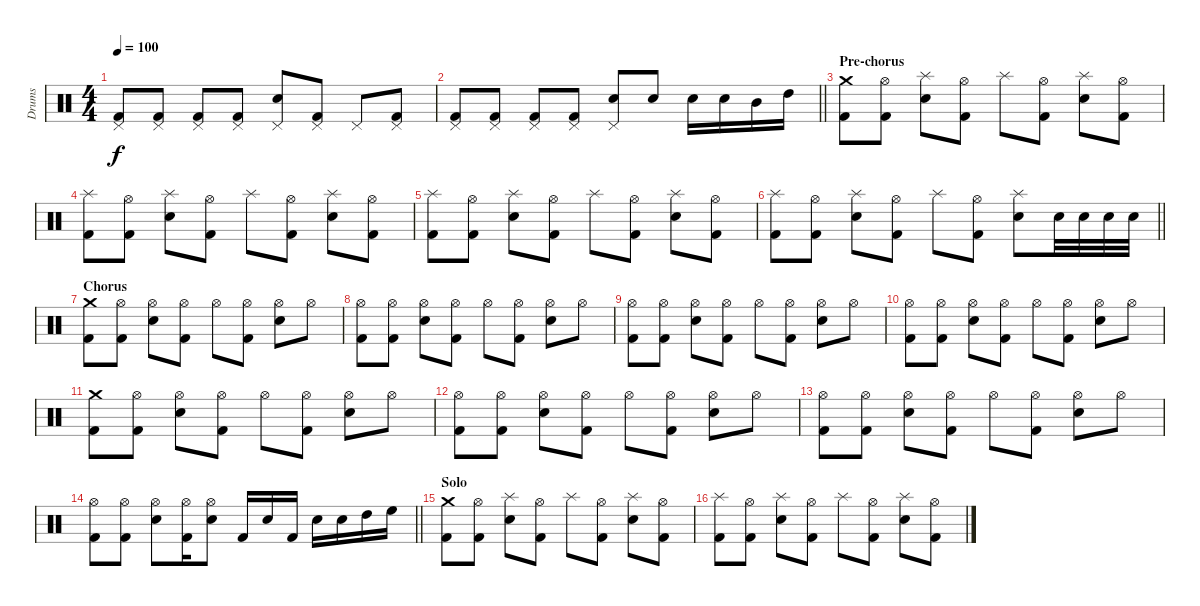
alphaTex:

\track ("Drums" "Drums") {instrument percussion}
\staff {score}
\articulation defaults
\ts (4 4)
\tempo 100
\clef neutral
\ks c
("Pedal Hi-Hat (hit)" "Kick (hit) 2").8{dy f} ("Pedal Hi-Hat (hit)" "Kick (hit) 2").8 ("Pedal Hi-Hat (hit)" "Kick (hit) 2").8 ("Pedal Hi-Hat (hit)" "Kick (hit) 2").8 ("Pedal Hi-Hat (hit)" "Electric Snare (hit)").8 ("Pedal Hi-Hat (hit)" "Kick (hit) 2").8 "Pedal Hi-Hat (hit)".8 ("Pedal Hi-Hat (hit)" "Kick (hit) 2").8 |
\barLineRight lightlight
("Pedal Hi-Hat (hit)" "Kick (hit) 2").8 ("Pedal Hi-Hat (hit)" "Kick (hit) 2").8 ("Pedal Hi-Hat (hit)" "Kick (hit) 2").8 ("Pedal Hi-Hat (hit)" "Kick (hit) 2").8 ("Pedal Hi-Hat (hit)" "Electric Snare (hit)").8 "Electric Snare (hit)".8 "Electric Snare (hit)".16 "Electric Snare (hit)".16 "Mid Tom (hit)".16 "High Tom (hit)".16 |
\section ("" "Pre-chorus")
("Crash medium (hit)" "Kick (hit) 2").8 ("Hi-Hat (open)" "Kick (hit) 2").8 ("Splash (hit)" "Electric Snare (hit)").8 ("Hi-Hat (open)" "Kick (hit) 2").8 "Splash (hit)".8 ("Hi-Hat (open)" "Kick (hit) 2").8 ("Splash (hit)" "Electric Snare (hit)").8 ("Hi-Hat (open)" "Kick (hit) 2").8 |
("Splash (hit)" "Kick (hit) 2").8 ("Hi-Hat (open)" "Kick (hit) 2").8 ("Splash (hit)" "Electric Snare (hit)").8 ("Hi-Hat (open)" "Kick (hit) 2").8 "Splash (hit)".8 ("Hi-Hat (open)" "Kick (hit) 2").8 ("Splash (hit)" "Electric Snare (hit)").8 ("Hi-Hat (open)" "Kick (hit) 2").8 |
("Splash (hit)" "Kick (hit) 2").8 ("Hi-Hat (open)" "Kick (hit) 2").8 ("Splash (hit)" "Electric Snare (hit)").8 ("Hi-Hat (open)" "Kick (hit) 2").8 "Splash (hit)".8 ("Hi-Hat (open)" "Kick (hit) 2").8 ("Splash (hit)" "Electric Snare (hit)").8 ("Hi-Hat (open)" "Kick (hit) 2").8 |
\barLineRight lightlight
("Splash (hit)" "Kick (hit) 2").8 ("Hi-Hat (open)" "Kick (hit) 2").8 ("Splash (hit)" "Electric Snare (hit)").8 ("Hi-Hat (open)" "Kick (hit) 2").8 "Splash (hit)".8 ("Hi-Hat (open)" "Kick (hit) 2").8 ("Splash (hit)" "Electric Snare (hit)").8 "Electric Snare (hit)".32 "Electric Snare (hit)".32 "Electric Snare (hit)".32 "Electric Snare (hit)".32 |
\section ("" "Chorus")
("Crash medium (hit)" "Kick (hit) 2").8 ("Hi-Hat (open)" "Kick (hit) 2").8 ("Hi-Hat (open)" "Electric Snare (hit)").8 ("Hi-Hat (open)" "Kick (hit) 2").8 "Hi-Hat (open)".8 ("Hi-Hat (open)" "Kick (hit) 2").8 ("Hi-Hat (open)" "Electric Snare (hit)").8 "Hi-Hat (open)".8 |
("Hi-Hat (open)" "Kick (hit) 2").8 ("Hi-Hat (open)" "Kick (hit) 2").8 ("Hi-Hat (open)" "Electric Snare (hit)").8 ("Hi-Hat (open)" "Kick (hit) 2").8 "Hi-Hat (open)".8 ("Hi-Hat (open)" "Kick (hit) 2").8 ("Hi-Hat (open)" "Electric Snare (hit)").8 "Hi-Hat (open)".8 |
("Hi-Hat (open)" "Kick (hit) 2").8 ("Hi-Hat (open)" "Kick (hit) 2").8 ("Hi-Hat (open)" "Electric Snare (hit)").8 ("Hi-Hat (open)" "Kick (hit) 2").8 "Hi-Hat (open)".8 ("Hi-Hat (open)" "Kick (hit) 2").8 ("Hi-Hat (open)" "Electric Snare (hit)").8 "Hi-Hat (open)".8 |
("Hi-Hat (open)" "Kick (hit) 2").8 ("Hi-Hat (open)" "Kick (hit) 2").8 ("Hi-Hat (open)" "Electric Snare (hit)").8 ("Hi-Hat (open)" "Kick (hit) 2").8 "Hi-Hat (open)".8 ("Hi-Hat (open)" "Kick (hit) 2").8 ("Hi-Hat (open)" "Electric Snare (hit)").8 "Hi-Hat (open)".8 |
("Crash medium (hit)" "Kick (hit) 2").8 ("Hi-Hat (open)" "Kick (hit) 2").8 ("Hi-Hat (open)" "Electric Snare (hit)").8 ("Hi-Hat (open)" "Kick (hit) 2").8 "Hi-Hat (open)".8 ("Hi-Hat (open)" "Kick (hit) 2").8 ("Hi-Hat (open)" "Electric Snare (hit)").8 "Hi-Hat (open)".8 |
("Hi-Hat (open)" "Kick (hit) 2").8 ("Hi-Hat (open)" "Kick (hit) 2").8 ("Hi-Hat (open)" "Electric Snare (hit)").8 ("Hi-Hat (open)" "Kick (hit) 2").8 "Hi-Hat (open)".8 ("Hi-Hat (open)" "Kick (hit) 2").8 ("Hi-Hat (open)" "Electric Snare (hit)").8 "Hi-Hat (open)".8 |
("Hi-Hat (open)" "Kick (hit) 2").8 ("Hi-Hat (open)" "Kick (hit) 2").8 ("Hi-Hat (open)" "Electric Snare (hit)").8 ("Hi-Hat (open)" "Kick (hit) 2").8 "Hi-Hat (open)".8 ("Hi-Hat (open)" "Kick (hit) 2").8 ("Hi-Hat (open)" "Electric Snare (hit)").8 "Hi-Hat (open)".8 |
\barLineRight lightlight
("Hi-Hat (open)" "Kick (hit) 2").8 ("Hi-Hat (open)" "Kick (hit) 2").8 ("Hi-Hat (open)" "Electric Snare (hit)").8 ("Hi-Hat (open)" "Kick (hit) 2").16 ("Hi-Hat (open)" "Electric Snare (hit)").8 "Kick (hit) 2".16 "Electric Snare (hit)".16 "Kick (hit) 2".16 "Electric Snare (hit)".16 "Electric Snare (hit)".16 "High Tom (hit)".16 "High Floor Tom (hit)".16 |
\section ("" "Solo")
("Crash medium (hit)" "Kick (hit) 2").8 ("Hi-Hat (open)" "Kick (hit) 2").8 ("Splash (hit)" "Electric Snare (hit)").8 ("Hi-Hat (open)" "Kick (hit) 2").8 "Splash (hit)".8 ("Hi-Hat (open)" "Kick (hit) 2").8 ("Splash (hit)" "Electric Snare (hit)").8 ("Hi-Hat (open)" "Kick (hit) 2").8 |
("Splash (hit)" "Kick (hit) 2").8 ("Hi-Hat (open)" "Kick (hit) 2").8 ("Splash (hit)" "Electric Snare (hit)").8 ("Hi-Hat (open)" "Kick (hit) 2").8 "Splash (hit)".8 ("Hi-Hat (open)" "Kick (hit) 2").8 ("Splash (hit)" "Electric Snare (hit)").8 ("Hi-Hat (open)" "Kick (hit) 2").8
